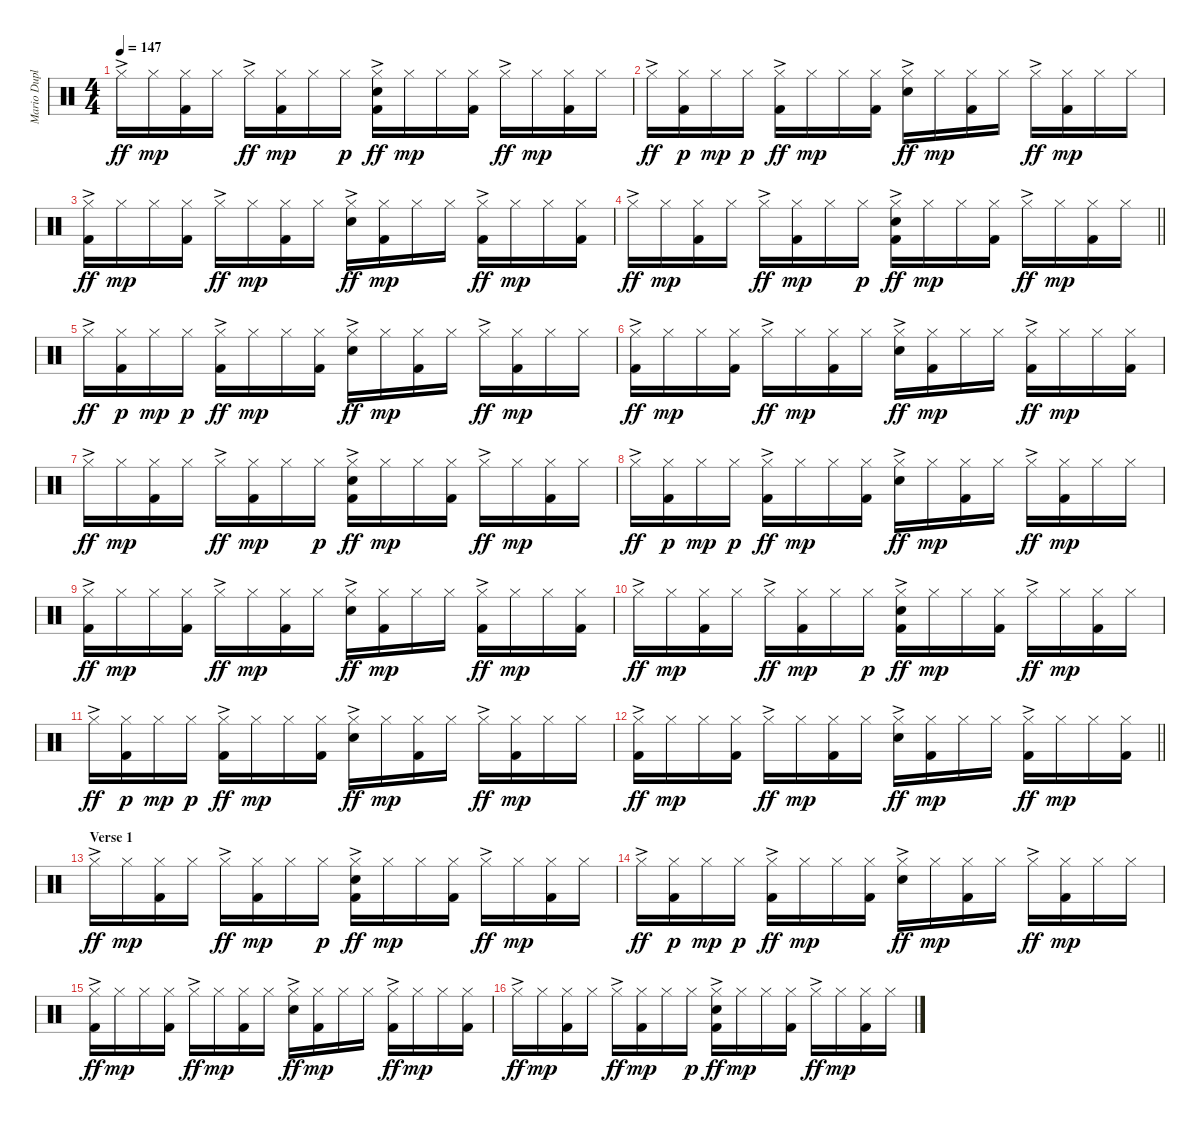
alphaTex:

\track ("Mario Duplantier - DRUMS" "Mario Dupl") {instrument percussion}
\staff {score}
\articulation defaults
\ts (4 4)
\tempo 147
\clef neutral
\ks c "Hi-Hat (closed)"{ac}.16{dy ff} "Hi-Hat (closed)".16{dy mp}
("Hi-Hat (closed)" "Kick (hit) 2").16 "Hi-Hat (closed)".16 "Hi-Hat (closed)"{ac}.16{dy ff} ("Hi-Hat (closed)" "Kick (hit) 2").16{dy mp} "Hi-Hat (closed)".16 "Hi-Hat (closed)".16{dy p} ("Hi-Hat (closed)"{ac} "Electric Snare (hit)" "Kick (hit) 2").16{dy ff} "Hi-Hat (closed)".16{dy mp} "Hi-Hat (closed)".16 ("Hi-Hat (closed)" "Kick (hit) 2").16 "Hi-Hat (closed)"{ac}.16{dy ff} "Hi-Hat (closed)".16{dy mp} ("Hi-Hat (closed)" "Kick (hit) 2").16 "Hi-Hat (closed)".16 |
"Hi-Hat (closed)"{ac}.16{dy ff} ("Hi-Hat (closed)" "Kick (hit) 2").16{dy p} "Hi-Hat (closed)".16{dy mp} "Hi-Hat (closed)".16{dy p} ("Hi-Hat (closed)"{ac} "Kick (hit) 2").16{dy ff} "Hi-Hat (closed)".16{dy mp} "Hi-Hat (closed)".16 ("Hi-Hat (closed)" "Kick (hit) 2").16 ("Hi-Hat (closed)"{ac} "Electric Snare (hit)").16{dy ff} "Hi-Hat (closed)".16{dy mp} ("Hi-Hat (closed)" "Kick (hit) 2").16 "Hi-Hat (closed)".16 "Hi-Hat (closed)"{ac}.16{dy ff} ("Hi-Hat (closed)" "Kick (hit) 2").16{dy mp} "Hi-Hat (closed)".16 "Hi-Hat (closed)".16 |
("Hi-Hat (closed)"{ac} "Kick (hit) 2").16{dy ff} "Hi-Hat (closed)".16{dy mp} "Hi-Hat (closed)".16 ("Hi-Hat (closed)" "Kick (hit) 2").16 "Hi-Hat (closed)"{ac}.16{dy ff} "Hi-Hat (closed)".16{dy mp} ("Hi-Hat (closed)" "Kick (hit) 2").16 "Hi-Hat (closed)".16 ("Hi-Hat (closed)"{ac} "Electric Snare (hit)").16{dy ff} ("Hi-Hat (closed)" "Kick (hit) 2").16{dy mp} "Hi-Hat (closed)".16 "Hi-Hat (closed)".16 ("Hi-Hat (closed)"{ac} "Kick (hit) 2").16{dy ff} "Hi-Hat (closed)".16{dy mp} "Hi-Hat (closed)".16 ("Hi-Hat (closed)" "Kick (hit) 2").16 |
\barLineRight lightlight "Hi-Hat (closed)"{ac}.16{dy ff} "Hi-Hat (closed)".16{dy mp}
("Hi-Hat (closed)" "Kick (hit) 2").16 "Hi-Hat (closed)".16 "Hi-Hat (closed)"{ac}.16{dy ff} ("Hi-Hat (closed)" "Kick (hit) 2").16{dy mp} "Hi-Hat (closed)".16 "Hi-Hat (closed)".16{dy p} ("Hi-Hat (closed)"{ac} "Electric Snare (hit)" "Kick (hit) 2").16{dy ff} "Hi-Hat (closed)".16{dy mp} "Hi-Hat (closed)".16 ("Hi-Hat (closed)" "Kick (hit) 2").16 "Hi-Hat (closed)"{ac}.16{dy ff} "Hi-Hat (closed)".16{dy mp} ("Hi-Hat (closed)" "Kick (hit) 2").16 "Hi-Hat (closed)".16 |
\section ("" "")
"Hi-Hat (closed)"{ac}.16{dy ff} ("Hi-Hat (closed)" "Kick (hit) 2").16{dy p} "Hi-Hat (closed)".16{dy mp} "Hi-Hat (closed)".16{dy p} ("Hi-Hat (closed)"{ac} "Kick (hit) 2").16{dy ff} "Hi-Hat (closed)".16{dy mp} "Hi-Hat (closed)".16 ("Hi-Hat (closed)" "Kick (hit) 2").16 ("Hi-Hat (closed)"{ac} "Electric Snare (hit)").16{dy ff} "Hi-Hat (closed)".16{dy mp} ("Hi-Hat (closed)" "Kick (hit) 2").16 "Hi-Hat (closed)".16 "Hi-Hat (closed)"{ac}.16{dy ff} ("Hi-Hat (closed)" "Kick (hit) 2").16{dy mp} "Hi-Hat (closed)".16 "Hi-Hat (closed)".16 |
("Hi-Hat (closed)"{ac} "Kick (hit) 2").16{dy ff} "Hi-Hat (closed)".16{dy mp} "Hi-Hat (closed)".16 ("Hi-Hat (closed)" "Kick (hit) 2").16 "Hi-Hat (closed)"{ac}.16{dy ff} "Hi-Hat (closed)".16{dy mp} ("Hi-Hat (closed)" "Kick (hit) 2").16 "Hi-Hat (closed)".16 ("Hi-Hat (closed)"{ac} "Electric Snare (hit)").16{dy ff} ("Hi-Hat (closed)" "Kick (hit) 2").16{dy mp} "Hi-Hat (closed)".16 "Hi-Hat (closed)".16 ("Hi-Hat (closed)"{ac} "Kick (hit) 2").16{dy ff} "Hi-Hat (closed)".16{dy mp} "Hi-Hat (closed)".16 ("Hi-Hat (closed)" "Kick (hit) 2").16 |
"Hi-Hat (closed)"{ac}.16{dy ff} "Hi-Hat (closed)".16{dy mp} ("Hi-Hat (closed)" "Kick (hit) 2").16 "Hi-Hat (closed)".16 "Hi-Hat (closed)"{ac}.16{dy ff} ("Hi-Hat (closed)" "Kick (hit) 2").16{dy mp} "Hi-Hat (closed)".16 "Hi-Hat (closed)".16{dy p} ("Hi-Hat (closed)"{ac} "Electric Snare (hit)" "Kick (hit) 2").16{dy ff} "Hi-Hat (closed)".16{dy mp} "Hi-Hat (closed)".16 ("Hi-Hat (closed)" "Kick (hit) 2").16 "Hi-Hat (closed)"{ac}.16{dy ff} "Hi-Hat (closed)".16{dy mp} ("Hi-Hat (closed)" "Kick (hit) 2").16 "Hi-Hat (closed)".16 |
"Hi-Hat (closed)"{ac}.16{dy ff} ("Hi-Hat (closed)" "Kick (hit) 2").16{dy p} "Hi-Hat (closed)".16{dy mp} "Hi-Hat (closed)".16{dy p} ("Hi-Hat (closed)"{ac} "Kick (hit) 2").16{dy ff} "Hi-Hat (closed)".16{dy mp} "Hi-Hat (closed)".16 ("Hi-Hat (closed)" "Kick (hit) 2").16 ("Hi-Hat (closed)"{ac} "Electric Snare (hit)").16{dy ff} "Hi-Hat (closed)".16{dy mp} ("Hi-Hat (closed)" "Kick (hit) 2").16 "Hi-Hat (closed)".16 "Hi-Hat (closed)"{ac}.16{dy ff} ("Hi-Hat (closed)" "Kick (hit) 2").16{dy mp} "Hi-Hat (closed)".16 "Hi-Hat (closed)".16 |
("Hi-Hat (closed)"{ac} "Kick (hit) 2").16{dy ff} "Hi-Hat (closed)".16{dy mp} "Hi-Hat (closed)".16 ("Hi-Hat (closed)" "Kick (hit) 2").16 "Hi-Hat (closed)"{ac}.16{dy ff} "Hi-Hat (closed)".16{dy mp} ("Hi-Hat (closed)" "Kick (hit) 2").16 "Hi-Hat (closed)".16 ("Hi-Hat (closed)"{ac} "Electric Snare (hit)").16{dy ff} ("Hi-Hat (closed)" "Kick (hit) 2").16{dy mp} "Hi-Hat (closed)".16 "Hi-Hat (closed)".16 ("Hi-Hat (closed)"{ac} "Kick (hit) 2").16{dy ff} "Hi-Hat (closed)".16{dy mp} "Hi-Hat (closed)".16 ("Hi-Hat (closed)" "Kick (hit) 2").16 |
"Hi-Hat (closed)"{ac}.16{dy ff} "Hi-Hat (closed)".16{dy mp} ("Hi-Hat (closed)" "Kick (hit) 2").16 "Hi-Hat (closed)".16 "Hi-Hat (closed)"{ac}.16{dy ff} ("Hi-Hat (closed)" "Kick (hit) 2").16{dy mp} "Hi-Hat (closed)".16 "Hi-Hat (closed)".16{dy p} ("Hi-Hat (closed)"{ac} "Electric Snare (hit)" "Kick (hit) 2").16{dy ff} "Hi-Hat (closed)".16{dy mp} "Hi-Hat (closed)".16 ("Hi-Hat (closed)" "Kick (hit) 2").16 "Hi-Hat (closed)"{ac}.16{dy ff} "Hi-Hat (closed)".16{dy mp} ("Hi-Hat (closed)" "Kick (hit) 2").16 "Hi-Hat (closed)".16 |
"Hi-Hat (closed)"{ac}.16{dy ff} ("Hi-Hat (closed)" "Kick (hit) 2").16{dy p} "Hi-Hat (closed)".16{dy mp} "Hi-Hat (closed)".16{dy p} ("Hi-Hat (closed)"{ac} "Kick (hit) 2").16{dy ff} "Hi-Hat (closed)".16{dy mp} "Hi-Hat (closed)".16 ("Hi-Hat (closed)" "Kick (hit) 2").16 ("Hi-Hat (closed)"{ac} "Electric Snare (hit)").16{dy ff} "Hi-Hat (closed)".16{dy mp} ("Hi-Hat (closed)" "Kick (hit) 2").16 "Hi-Hat (closed)".16 "Hi-Hat (closed)"{ac}.16{dy ff} ("Hi-Hat (closed)" "Kick (hit) 2").16{dy mp} "Hi-Hat (closed)".16 "Hi-Hat (closed)".16 |
\barLineRight lightlight
("Hi-Hat (closed)"{ac} "Kick (hit) 2").16{dy ff} "Hi-Hat (closed)".16{dy mp} "Hi-Hat (closed)".16 ("Hi-Hat (closed)" "Kick (hit) 2").16 "Hi-Hat (closed)"{ac}.16{dy ff} "Hi-Hat (closed)".16{dy mp} ("Hi-Hat (closed)" "Kick (hit) 2").16 "Hi-Hat (closed)".16 ("Hi-Hat (closed)"{ac} "Electric Snare (hit)").16{dy ff} ("Hi-Hat (closed)" "Kick (hit) 2").16{dy mp} "Hi-Hat (closed)".16 "Hi-Hat (closed)".16 ("Hi-Hat (closed)"{ac} "Kick (hit) 2").16{dy ff} "Hi-Hat (closed)".16{dy mp} "Hi-Hat (closed)".16 ("Hi-Hat (closed)" "Kick (hit) 2").16 |
\section ("" "Verse 1")
"Hi-Hat (closed)"{ac}.16{dy ff} "Hi-Hat (closed)".16{dy mp} ("Hi-Hat (closed)" "Kick (hit) 2").16 "Hi-Hat (closed)".16 "Hi-Hat (closed)"{ac}.16{dy ff} ("Hi-Hat (closed)" "Kick (hit) 2").16{dy mp} "Hi-Hat (closed)".16 "Hi-Hat (closed)".16{dy p} ("Hi-Hat (closed)"{ac} "Electric Snare (hit)" "Kick (hit) 2").16{dy ff} "Hi-Hat (closed)".16{dy mp} "Hi-Hat (closed)".16 ("Hi-Hat (closed)" "Kick (hit) 2").16 "Hi-Hat (closed)"{ac}.16{dy ff} "Hi-Hat (closed)".16{dy mp} ("Hi-Hat (closed)" "Kick (hit) 2").16 "Hi-Hat (closed)".16 |
"Hi-Hat (closed)"{ac}.16{dy ff} ("Hi-Hat (closed)" "Kick (hit) 2").16{dy p} "Hi-Hat (closed)".16{dy mp} "Hi-Hat (closed)".16{dy p} ("Hi-Hat (closed)"{ac} "Kick (hit) 2").16{dy ff} "Hi-Hat (closed)".16{dy mp} "Hi-Hat (closed)".16 ("Hi-Hat (closed)" "Kick (hit) 2").16 ("Hi-Hat (closed)"{ac} "Electric Snare (hit)").16{dy ff} "Hi-Hat (closed)".16{dy mp} ("Hi-Hat (closed)" "Kick (hit) 2").16 "Hi-Hat (closed)".16 "Hi-Hat (closed)"{ac}.16{dy ff} ("Hi-Hat (closed)" "Kick (hit) 2").16{dy mp} "Hi-Hat (closed)".16 "Hi-Hat (closed)".16 |
("Hi-Hat (closed)"{ac} "Kick (hit) 2").16{dy ff} "Hi-Hat (closed)".16{dy mp} "Hi-Hat (closed)".16 ("Hi-Hat (closed)" "Kick (hit) 2").16 "Hi-Hat (closed)"{ac}.16{dy ff} "Hi-Hat (closed)".16{dy mp} ("Hi-Hat (closed)" "Kick (hit) 2").16 "Hi-Hat (closed)".16 ("Hi-Hat (closed)"{ac} "Electric Snare (hit)").16{dy ff} ("Hi-Hat (closed)" "Kick (hit) 2").16{dy mp} "Hi-Hat (closed)".16 "Hi-Hat (closed)".16 ("Hi-Hat (closed)"{ac} "Kick (hit) 2").16{dy ff} "Hi-Hat (closed)".16{dy mp} "Hi-Hat (closed)".16 ("Hi-Hat (closed)" "Kick (hit) 2").16 |
"Hi-Hat (closed)"{ac}.16{dy ff} "Hi-Hat (closed)".16{dy mp} ("Hi-Hat (closed)" "Kick (hit) 2").16 "Hi-Hat (closed)".16 "Hi-Hat (closed)"{ac}.16{dy ff} ("Hi-Hat (closed)" "Kick (hit) 2").16{dy mp} "Hi-Hat (closed)".16 "Hi-Hat (closed)".16{dy p} ("Hi-Hat (closed)"{ac} "Electric Snare (hit)" "Kick (hit) 2").16{dy ff} "Hi-Hat (closed)".16{dy mp} "Hi-Hat (closed)".16 ("Hi-Hat (closed)" "Kick (hit) 2").16 "Hi-Hat (closed)"{ac}.16{dy ff} "Hi-Hat (closed)".16{dy mp} ("Hi-Hat (closed)" "Kick (hit) 2").16 "Hi-Hat (closed)".16
